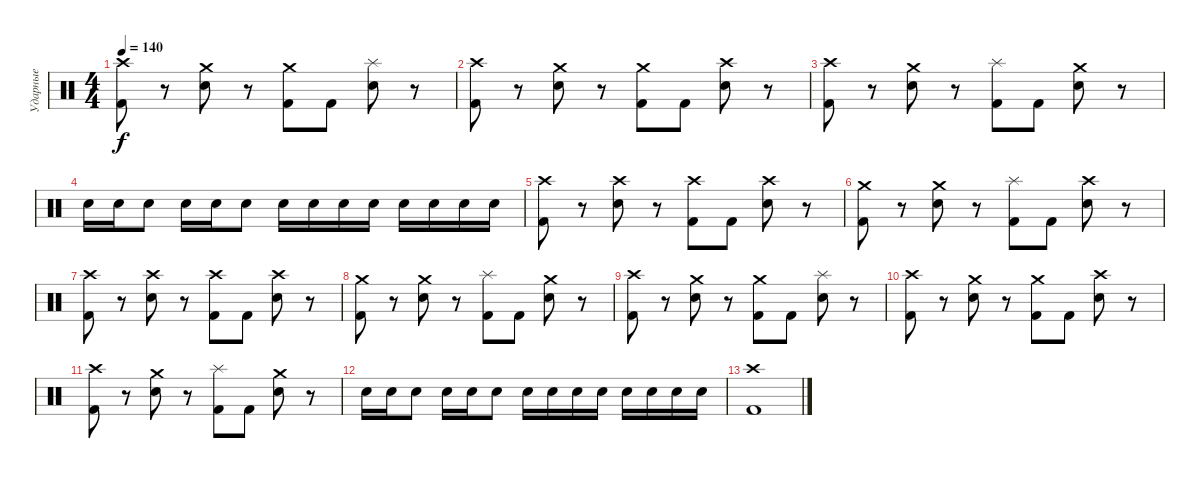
\track ("Ударные" "Ударные") {instrument percussion}
\staff {score}
\articulation defaults
\ts (4 4)
\tempo 140
\clef neutral
\ks c
("Crash high (hit)" "Kick (hit) 2").8{dy f} r.8 ("Crash medium (hit)" "Electric Snare (hit)").8 r.8 ("Crash medium (hit)" "Kick (hit) 2").8 "Kick (hit) 2".8 ("Splash (hit)" "Electric Snare (hit)").8 r.8 |
("Crash high (hit)" "Kick (hit) 2").8 r.8 ("Crash medium (hit)" "Electric Snare (hit)").8 r.8 ("Crash medium (hit)" "Kick (hit) 2").8 "Kick (hit) 2".8 ("Crash high (hit)" "Electric Snare (hit)").8 r.8 |
("Crash high (hit)" "Kick (hit) 2").8 r.8 ("Crash medium (hit)" "Electric Snare (hit)").8 r.8 ("Splash (hit)" "Kick (hit) 2").8 "Kick (hit) 2".8 ("Crash medium (hit)" "Electric Snare (hit)").8 r.8 |
"Electric Snare (hit)".16 "Electric Snare (hit)".16 "Electric Snare (hit)".8 "Electric Snare (hit)".16 "Electric Snare (hit)".16 "Electric Snare (hit)".8 "Electric Snare (hit)".16 "Electric Snare (hit)".16 "Electric Snare (hit)".16 "Electric Snare (hit)".16 "Electric Snare (hit)".16 "Electric Snare (hit)".16 "Electric Snare (hit)".16 "Electric Snare (hit)".16 |
("Crash high (hit)" "Kick (hit) 2").8 r.8 ("Crash high (hit)" "Electric Snare (hit)").8 r.8 ("Crash high (hit)" "Kick (hit) 2").8 "Kick (hit) 2".8 ("Crash high (hit)" "Electric Snare (hit)").8 r.8 |
("Crash medium (hit)" "Kick (hit) 2").8 r.8 ("Crash medium (hit)" "Electric Snare (hit)").8 r.8 ("Splash (hit)" "Kick (hit) 2").8 "Kick (hit) 2".8 ("Crash high (hit)" "Electric Snare (hit)").8 r.8 |
("Crash high (hit)" "Kick (hit) 2").8 r.8 ("Crash high (hit)" "Electric Snare (hit)").8 r.8 ("Crash high (hit)" "Kick (hit) 2").8 "Kick (hit) 2".8 ("Crash high (hit)" "Electric Snare (hit)").8 r.8 |
("Crash medium (hit)" "Kick (hit) 2").8 r.8 ("Crash medium (hit)" "Electric Snare (hit)").8 r.8 ("Splash (hit)" "Kick (hit) 2").8 "Kick (hit) 2".8 ("Crash medium (hit)" "Electric Snare (hit)").8 r.8 |
("Crash high (hit)" "Kick (hit) 2").8 r.8 ("Crash medium (hit)" "Electric Snare (hit)").8 r.8 ("Crash medium (hit)" "Kick (hit) 2").8 "Kick (hit) 2".8 ("Splash (hit)" "Electric Snare (hit)").8 r.8 |
("Crash high (hit)" "Kick (hit) 2").8 r.8 ("Crash medium (hit)" "Electric Snare (hit)").8 r.8 ("Crash medium (hit)" "Kick (hit) 2").8 "Kick (hit) 2".8 ("Crash high (hit)" "Electric Snare (hit)").8 r.8 |
("Crash high (hit)" "Kick (hit) 2").8 r.8 ("Crash medium (hit)" "Electric Snare (hit)").8 r.8 ("Splash (hit)" "Kick (hit) 2").8 "Kick (hit) 2".8 ("Crash medium (hit)" "Electric Snare (hit)").8 r.8 |
"Electric Snare (hit)".16 "Electric Snare (hit)".16 "Electric Snare (hit)".8 "Electric Snare (hit)".16 "Electric Snare (hit)".16 "Electric Snare (hit)".8 "Electric Snare (hit)".16 "Electric Snare (hit)".16 "Electric Snare (hit)".16 "Electric Snare (hit)".16 "Electric Snare (hit)".16 "Electric Snare (hit)".16 "Electric Snare (hit)".16 "Electric Snare (hit)".16 |
("Crash high (hit)" "Kick (hit) 2").1
